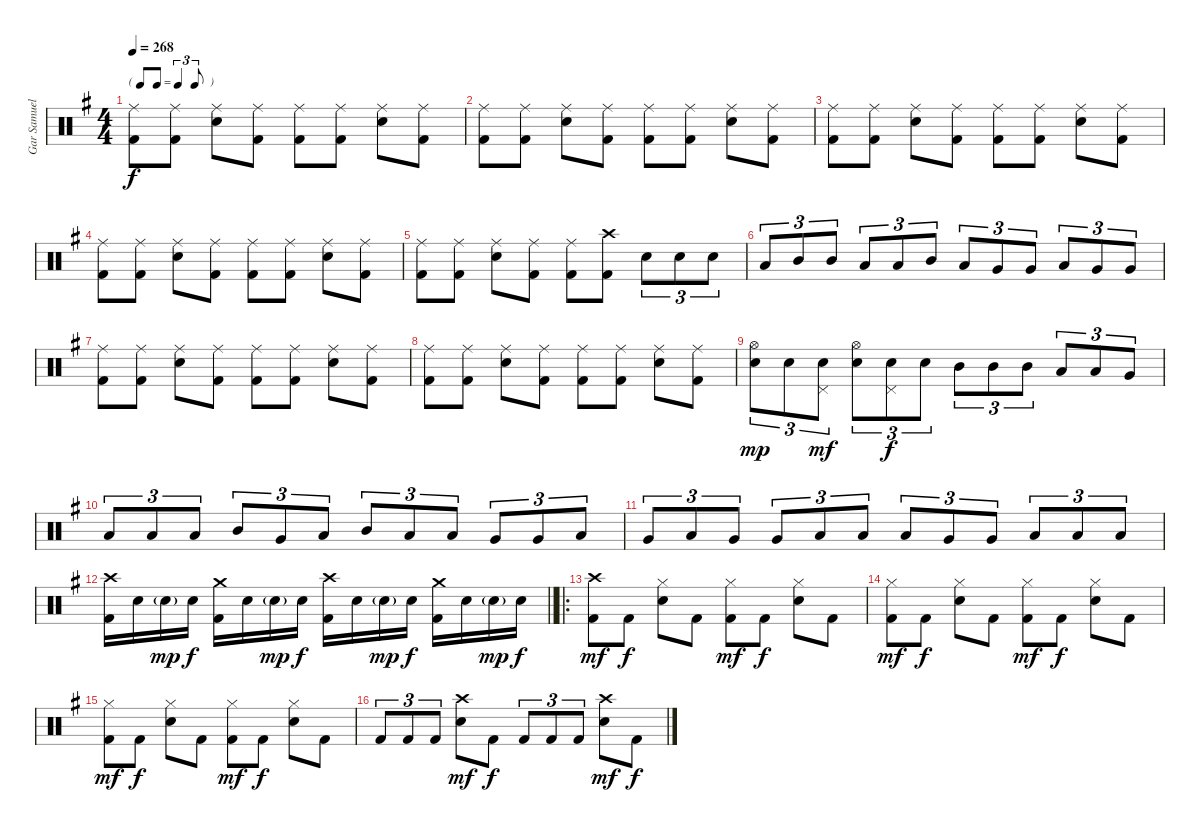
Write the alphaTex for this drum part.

\track ("Gar Samuelson" "Gar Samuel") {instrument percussion}
\staff {score}
\articulation defaults
\ts (4 4)
\tf triplet8th
\tempo 268
\clef neutral
\ks g
("Ride (middle)" "Kick (hit) 2").8{dy f} ("Ride (middle)" "Kick (hit) 2").8 ("Ride (middle)" "Snare (hit) 2").8 ("Ride (middle)" "Kick (hit) 2").8 ("Ride (middle)" "Kick (hit) 2").8 ("Ride (middle)" "Kick (hit) 2").8 ("Ride (middle)" "Snare (hit) 2").8 ("Ride (middle)" "Kick (hit) 2").8 |
("Ride (middle)" "Kick (hit) 2").8 ("Ride (middle)" "Kick (hit) 2").8 ("Ride (middle)" "Snare (hit) 2").8 ("Ride (middle)" "Kick (hit) 2").8 ("Ride (middle)" "Kick (hit) 2").8 ("Ride (middle)" "Kick (hit) 2").8 ("Ride (middle)" "Snare (hit) 2").8 ("Ride (middle)" "Kick (hit) 2").8 |
("Ride (middle)" "Kick (hit) 2").8 ("Ride (middle)" "Kick (hit) 2").8 ("Ride (middle)" "Snare (hit) 2").8 ("Ride (middle)" "Kick (hit) 2").8 ("Ride (middle)" "Kick (hit) 2").8 ("Ride (middle)" "Kick (hit) 2").8 ("Ride (middle)" "Snare (hit) 2").8 ("Ride (middle)" "Kick (hit) 2").8 |
("Ride (middle)" "Kick (hit) 2").8 ("Ride (middle)" "Kick (hit) 2").8 ("Ride (middle)" "Snare (hit) 2").8 ("Ride (middle)" "Kick (hit) 2").8 ("Ride (middle)" "Kick (hit) 2").8 ("Ride (middle)" "Kick (hit) 2").8 ("Ride (middle)" "Snare (hit) 2").8 ("Ride (middle)" "Kick (hit) 2").8 |
("Ride (middle)" "Kick (hit) 2").8 ("Ride (middle)" "Kick (hit) 2").8 ("Ride (middle)" "Snare (hit) 2").8 ("Ride (middle)" "Kick (hit) 2").8 ("Ride (middle)" "Kick (hit) 2").8 ("Crash high (hit)" "Kick (hit) 2").8 "Snare (hit) 2".8{tu (3 2)} "Snare (hit) 2".8{tu (3 2)} "Snare (hit) 2".8{tu (3 2)} |
"Low Tom (hit)".8{tu (3 2)} "Mid Tom (hit)".8{tu (3 2)} "Mid Tom (hit)".8{tu (3 2)} "Low Tom (hit)".8{tu (3 2)} "Low Tom (hit)".8{tu (3 2)} "Mid Tom (hit)".8{tu (3 2)} "Low Tom (hit)".8{tu (3 2)} "Very Low Tom (hit)".8{tu (3 2)} "Very Low Tom (hit)".8{tu (3 2)} "Low Tom (hit)".8{tu (3 2)} "Very Low Tom (hit)".8{tu (3 2)} "Very Low Tom (hit)".8{tu (3 2)} |
("Ride (middle)" "Kick (hit) 2").8 ("Ride (middle)" "Kick (hit) 2").8 ("Ride (middle)" "Snare (hit) 2").8 ("Ride (middle)" "Kick (hit) 2").8 ("Ride (middle)" "Kick (hit) 2").8 ("Ride (middle)" "Kick (hit) 2").8 ("Ride (middle)" "Snare (hit) 2").8 ("Ride (middle)" "Kick (hit) 2").8 |
("Ride (middle)" "Kick (hit) 2").8 ("Ride (middle)" "Kick (hit) 2").8 ("Ride (middle)" "Snare (hit) 2").8 ("Ride (middle)" "Kick (hit) 2").8 ("Ride (middle)" "Kick (hit) 2").8 ("Ride (middle)" "Kick (hit) 2").8 ("Ride (middle)" "Snare (hit) 2").8 ("Ride (middle)" "Kick (hit) 2").8 |
("Hi-Hat (open)" "Snare (hit) 2").8{tu (3 2) dy mp} "Snare (hit) 2".8{tu (3 2)} ("Pedal Hi-Hat (hit)" "Snare (hit) 2").8{tu (3 2) dy mf} ("Hi-Hat (open)" "Snare (hit) 2").8{tu (3 2)} ("Pedal Hi-Hat (hit)" "Snare (hit) 2").8{tu (3 2) dy f} "Snare (hit) 2".8{tu (3 2)} "Mid Tom (hit)".8{tu (3 2)} "Mid Tom (hit)".8{tu (3 2)} "Mid Tom (hit)".8{tu (3 2)} "Low Tom (hit)".8{tu (3 2)} "Low Tom (hit)".8{tu (3 2)} "Very Low Tom (hit)".8{tu (3 2)} |
"Low Tom (hit)".8{tu (3 2)} "Low Tom (hit)".8{tu (3 2)} "Low Tom (hit)".8{tu (3 2)} "Mid Tom (hit)".8{tu (3 2)} "Very Low Tom (hit)".8{tu (3 2)} "Low Tom (hit)".8{tu (3 2)} "Mid Tom (hit)".8{tu (3 2)} "Low Tom (hit)".8{tu (3 2)} "Low Tom (hit)".8{tu (3 2)} "Very Low Tom (hit)".8{tu (3 2)} "Very Low Tom (hit)".8{tu (3 2)} "Low Tom (hit)".8{tu (3 2)} |
"Very Low Tom (hit)".8{tu (3 2)} "Low Floor Tom (hit)".8{tu (3 2)} "Very Low Tom (hit)".8{tu (3 2)} "Very Low Tom (hit)".8{tu (3 2)} "Low Floor Tom (hit)".8{tu (3 2)} "Low Floor Tom (hit)".8{tu (3 2)} "Low Floor Tom (hit)".8{tu (3 2)} "Very Low Tom (hit)".8{tu (3 2)} "Very Low Tom (hit)".8{tu (3 2)} "Low Floor Tom (hit)".8{tu (3 2)} "Low Tom (hit)".8{tu (3 2)} "Low Floor Tom (hit)".8{tu (3 2)} |
\barLineRight lightlight
("Crash high (hit)" "Kick (hit) 2").16 "Snare (hit) 2".16 "Snare (hit) 2"{g}.16{dy mp} "Snare (hit) 2".16{dy f} ("Crash medium (hit)" "Kick (hit) 2").16 "Snare (hit) 2".16 "Snare (hit) 2"{g}.16{dy mp} "Snare (hit) 2".16{dy f} ("Crash high (hit)" "Kick (hit) 2").16 "Snare (hit) 2".16 "Snare (hit) 2"{g}.16{dy mp} "Snare (hit) 2".16{dy f} ("Crash medium (hit)" "Kick (hit) 2").16 "Snare (hit) 2".16 "Snare (hit) 2"{g}.16{dy mp} "Snare (hit) 2".16{dy f} |
\ro
("Crash high (hit)" "Kick (hit) 2").8{dy mf} "Kick (hit) 2".8{dy f} ("Hi-Hat (closed)" "Snare (hit) 2").8 "Kick (hit) 2".8 ("Hi-Hat (closed)" "Kick (hit) 2").8{dy mf} "Kick (hit) 2".8{dy f} ("Hi-Hat (closed)" "Snare (hit) 2").8 "Kick (hit) 2".8 |
("Hi-Hat (closed)" "Kick (hit) 2").8{dy mf} "Kick (hit) 2".8{dy f} ("Hi-Hat (closed)" "Snare (hit) 2").8 "Kick (hit) 2".8 ("Hi-Hat (closed)" "Kick (hit) 2").8{dy mf} "Kick (hit) 2".8{dy f} ("Hi-Hat (closed)" "Snare (hit) 2").8 "Kick (hit) 2".8 |
("Hi-Hat (closed)" "Kick (hit) 2").8{dy mf} "Kick (hit) 2".8{dy f} ("Hi-Hat (closed)" "Snare (hit) 2").8 "Kick (hit) 2".8 ("Hi-Hat (closed)" "Kick (hit) 2").8{dy mf} "Kick (hit) 2".8{dy f} ("Hi-Hat (closed)" "Snare (hit) 2").8 "Kick (hit) 2".8 |
"Kick (hit) 2".8{tu (3 2)} "Kick (hit) 2".8{tu (3 2)} "Kick (hit) 2".8{tu (3 2)} ("Crash high (hit)" "Snare (hit) 2").8{dy mf} "Kick (hit) 2".8{dy f} "Kick (hit) 2".8{tu (3 2)} "Kick (hit) 2".8{tu (3 2)} "Kick (hit) 2".8{tu (3 2)} ("Crash high (hit)" "Snare (hit) 2").8{dy mf} "Kick (hit) 2".8{dy f}
